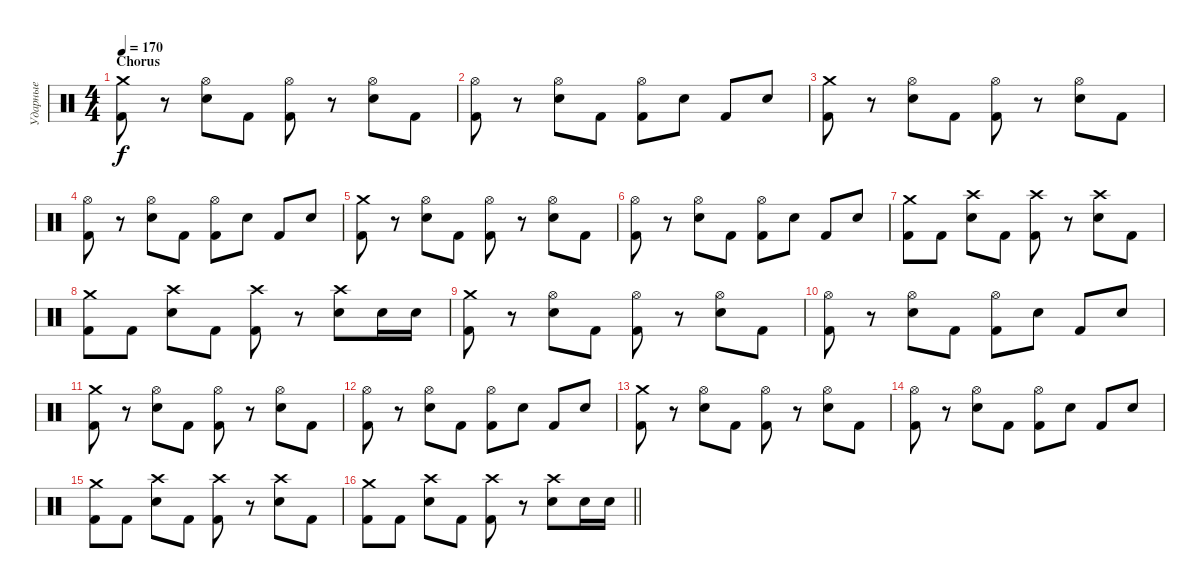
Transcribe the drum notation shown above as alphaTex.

\track ("Ударные" "Ударные") {instrument percussion}
\staff {score}
\articulation defaults
\ts (4 4)
\section ("" "Chorus")
\tempo 170
\clef neutral
\ks c
("Kick (hit) 2" "Crash medium (hit)").8{dy f} r.8 ("Electric Snare (hit)" "Hi-Hat (open)").8 "Kick (hit) 2".8 ("Kick (hit) 2" "Hi-Hat (open)").8 r.8 ("Electric Snare (hit)" "Hi-Hat (open)").8 "Kick (hit) 2".8 |
("Kick (hit) 2" "Hi-Hat (open)").8 r.8 ("Electric Snare (hit)" "Hi-Hat (open)").8 "Kick (hit) 2".8 ("Kick (hit) 2" "Hi-Hat (open)").8 "Electric Snare (hit)".8 "Kick (hit) 2".8 "Electric Snare (hit)".8 |
("Kick (hit) 2" "Crash medium (hit)").8 r.8 ("Electric Snare (hit)" "Hi-Hat (open)").8 "Kick (hit) 2".8 ("Kick (hit) 2" "Hi-Hat (open)").8 r.8 ("Electric Snare (hit)" "Hi-Hat (open)").8 "Kick (hit) 2".8 |
("Kick (hit) 2" "Hi-Hat (open)").8 r.8 ("Electric Snare (hit)" "Hi-Hat (open)").8 "Kick (hit) 2".8 ("Kick (hit) 2" "Hi-Hat (open)").8 "Electric Snare (hit)".8 "Kick (hit) 2".8 "Electric Snare (hit)".8 |
("Kick (hit) 2" "Crash medium (hit)").8 r.8 ("Electric Snare (hit)" "Hi-Hat (open)").8 "Kick (hit) 2".8 ("Kick (hit) 2" "Hi-Hat (open)").8 r.8 ("Electric Snare (hit)" "Hi-Hat (open)").8 "Kick (hit) 2".8 |
("Kick (hit) 2" "Hi-Hat (open)").8 r.8 ("Electric Snare (hit)" "Hi-Hat (open)").8 "Kick (hit) 2".8 ("Kick (hit) 2" "Hi-Hat (open)").8 "Electric Snare (hit)".8 "Kick (hit) 2".8 "Electric Snare (hit)".8 |
("Kick (hit) 2" "Crash medium (hit)").8 "Kick (hit) 2".8 ("Electric Snare (hit)" "Crash high (hit)").8 "Kick (hit) 2".8 ("Kick (hit) 2" "Crash high (hit)").8 r.8 ("Electric Snare (hit)" "Crash high (hit)").8 "Kick (hit) 2".8 |
("Kick (hit) 2" "Crash medium (hit)").8 "Kick (hit) 2".8 ("Electric Snare (hit)" "Crash high (hit)").8 "Kick (hit) 2".8 ("Kick (hit) 2" "Crash high (hit)").8 r.8 ("Electric Snare (hit)" "Crash high (hit)").8 "Electric Snare (hit)".16 "Electric Snare (hit)".16 |
("Kick (hit) 2" "Crash medium (hit)").8 r.8 ("Electric Snare (hit)" "Hi-Hat (open)").8 "Kick (hit) 2".8 ("Kick (hit) 2" "Hi-Hat (open)").8 r.8 ("Electric Snare (hit)" "Hi-Hat (open)").8 "Kick (hit) 2".8 |
("Kick (hit) 2" "Hi-Hat (open)").8 r.8 ("Electric Snare (hit)" "Hi-Hat (open)").8 "Kick (hit) 2".8 ("Kick (hit) 2" "Hi-Hat (open)").8 "Electric Snare (hit)".8 "Kick (hit) 2".8 "Electric Snare (hit)".8 |
("Kick (hit) 2" "Crash medium (hit)").8 r.8 ("Electric Snare (hit)" "Hi-Hat (open)").8 "Kick (hit) 2".8 ("Kick (hit) 2" "Hi-Hat (open)").8 r.8 ("Electric Snare (hit)" "Hi-Hat (open)").8 "Kick (hit) 2".8 |
("Kick (hit) 2" "Hi-Hat (open)").8 r.8 ("Electric Snare (hit)" "Hi-Hat (open)").8 "Kick (hit) 2".8 ("Kick (hit) 2" "Hi-Hat (open)").8 "Electric Snare (hit)".8 "Kick (hit) 2".8 "Electric Snare (hit)".8 |
("Kick (hit) 2" "Crash medium (hit)").8 r.8 ("Electric Snare (hit)" "Hi-Hat (open)").8 "Kick (hit) 2".8 ("Kick (hit) 2" "Hi-Hat (open)").8 r.8 ("Electric Snare (hit)" "Hi-Hat (open)").8 "Kick (hit) 2".8 |
("Kick (hit) 2" "Hi-Hat (open)").8 r.8 ("Electric Snare (hit)" "Hi-Hat (open)").8 "Kick (hit) 2".8 ("Kick (hit) 2" "Hi-Hat (open)").8 "Electric Snare (hit)".8 "Kick (hit) 2".8 "Electric Snare (hit)".8 |
("Kick (hit) 2" "Crash medium (hit)").8 "Kick (hit) 2".8 ("Electric Snare (hit)" "Crash high (hit)").8 "Kick (hit) 2".8 ("Kick (hit) 2" "Crash high (hit)").8 r.8 ("Electric Snare (hit)" "Crash high (hit)").8 "Kick (hit) 2".8 |
\barLineRight lightlight
("Kick (hit) 2" "Crash medium (hit)").8 "Kick (hit) 2".8 ("Electric Snare (hit)" "Crash high (hit)").8 "Kick (hit) 2".8 ("Kick (hit) 2" "Crash high (hit)").8 r.8 ("Electric Snare (hit)" "Crash high (hit)").8 "Electric Snare (hit)".16 "Electric Snare (hit)".16
